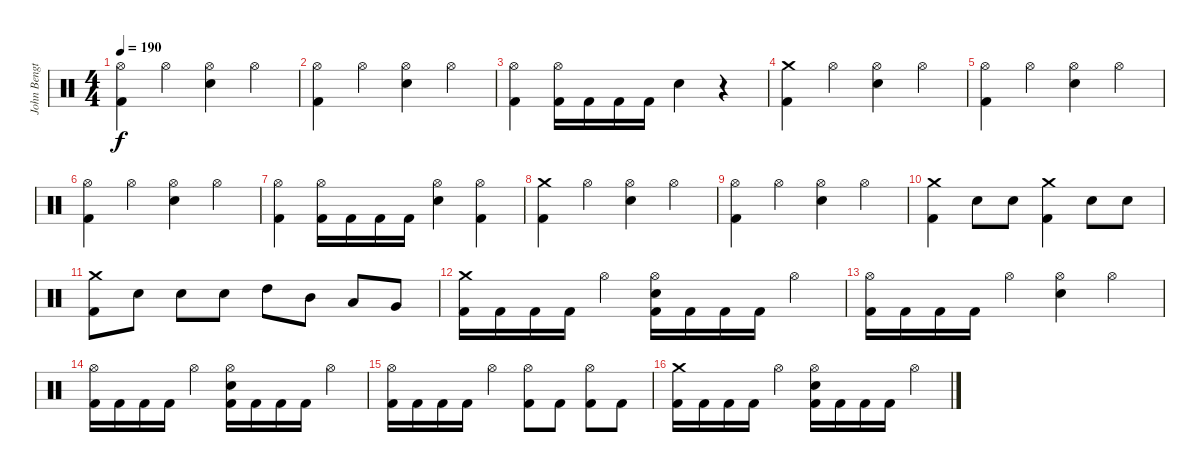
\track ("John Bengtsson" "John Bengt") {instrument percussion}
\staff {score}
\articulation defaults
\ts (4 4)
\tempo 190
\clef neutral
\ks c
("Hi-Hat (open)" "Kick (hit) 2").4{dy f} "Hi-Hat (open)".4 ("Hi-Hat (open)" "Electric Snare (hit)").4 "Hi-Hat (open)".4 |
("Hi-Hat (open)" "Kick (hit) 2").4 "Hi-Hat (open)".4 ("Hi-Hat (open)" "Electric Snare (hit)").4 "Hi-Hat (open)".4 |
("Hi-Hat (open)" "Kick (hit) 2").4 ("Hi-Hat (open)" "Kick (hit) 2").16 "Kick (hit) 2".16 "Kick (hit) 2".16 "Kick (hit) 2".16 "Electric Snare (hit)".4 r.4 |
("Crash medium (hit)" "Kick (hit) 2").4 "Hi-Hat (open)".4 ("Hi-Hat (open)" "Electric Snare (hit)").4 "Hi-Hat (open)".4 |
("Hi-Hat (open)" "Kick (hit) 2").4 "Hi-Hat (open)".4 ("Hi-Hat (open)" "Electric Snare (hit)").4 "Hi-Hat (open)".4 |
("Hi-Hat (open)" "Kick (hit) 2").4 "Hi-Hat (open)".4 ("Hi-Hat (open)" "Electric Snare (hit)").4 "Hi-Hat (open)".4 |
("Hi-Hat (open)" "Kick (hit) 2").4 ("Hi-Hat (open)" "Kick (hit) 2").16 "Kick (hit) 2".16 "Kick (hit) 2".16 "Kick (hit) 2".16 ("Hi-Hat (open)" "Electric Snare (hit)").4 ("Hi-Hat (open)" "Kick (hit) 2").4 |
("Crash medium (hit)" "Kick (hit) 2").4 "Hi-Hat (open)".4 ("Hi-Hat (open)" "Electric Snare (hit)").4 "Hi-Hat (open)".4 |
("Hi-Hat (open)" "Kick (hit) 2").4 "Hi-Hat (open)".4 ("Hi-Hat (open)" "Electric Snare (hit)").4 "Hi-Hat (open)".4 |
("Crash medium (hit)" "Kick (hit) 2").4 "Electric Snare (hit)".8 "Electric Snare (hit)".8 ("Crash medium (hit)" "Kick (hit) 2").4 "Electric Snare (hit)".8 "Electric Snare (hit)".8 |
("Crash medium (hit)" "Kick (hit) 2").8 "Electric Snare (hit)".8 "Electric Snare (hit)".8 "Electric Snare (hit)".8 "High Tom (hit)".8 "Mid Tom (hit)".8 "Low Tom (hit)".8 "Very Low Tom (hit)".8 |
("Crash medium (hit)" "Kick (hit) 2").16 "Kick (hit) 2".16 "Kick (hit) 2".16 "Kick (hit) 2".16 "Hi-Hat (open)".4 ("Hi-Hat (open)" "Electric Snare (hit)" "Kick (hit) 2").16 "Kick (hit) 2".16 "Kick (hit) 2".16 "Kick (hit) 2".16 "Hi-Hat (open)".4 |
("Hi-Hat (open)" "Kick (hit) 2").16 "Kick (hit) 2".16 "Kick (hit) 2".16 "Kick (hit) 2".16 "Hi-Hat (open)".4 ("Hi-Hat (open)" "Electric Snare (hit)").4 "Hi-Hat (open)".4 |
("Hi-Hat (open)" "Kick (hit) 2").16 "Kick (hit) 2".16 "Kick (hit) 2".16 "Kick (hit) 2".16 "Hi-Hat (open)".4 ("Hi-Hat (open)" "Electric Snare (hit)" "Kick (hit) 2").16 "Kick (hit) 2".16 "Kick (hit) 2".16 "Kick (hit) 2".16 "Hi-Hat (open)".4 |
("Hi-Hat (open)" "Kick (hit) 2").16 "Kick (hit) 2".16 "Kick (hit) 2".16 "Kick (hit) 2".16 "Hi-Hat (open)".4 ("Hi-Hat (open)" "Kick (hit) 2").8 "Kick (hit) 2".8 ("Hi-Hat (open)" "Kick (hit) 2").8 "Kick (hit) 2".8 |
("Crash medium (hit)" "Kick (hit) 2").16 "Kick (hit) 2".16 "Kick (hit) 2".16 "Kick (hit) 2".16 "Hi-Hat (open)".4 ("Hi-Hat (open)" "Electric Snare (hit)" "Kick (hit) 2").16 "Kick (hit) 2".16 "Kick (hit) 2".16 "Kick (hit) 2".16 "Hi-Hat (open)".4
